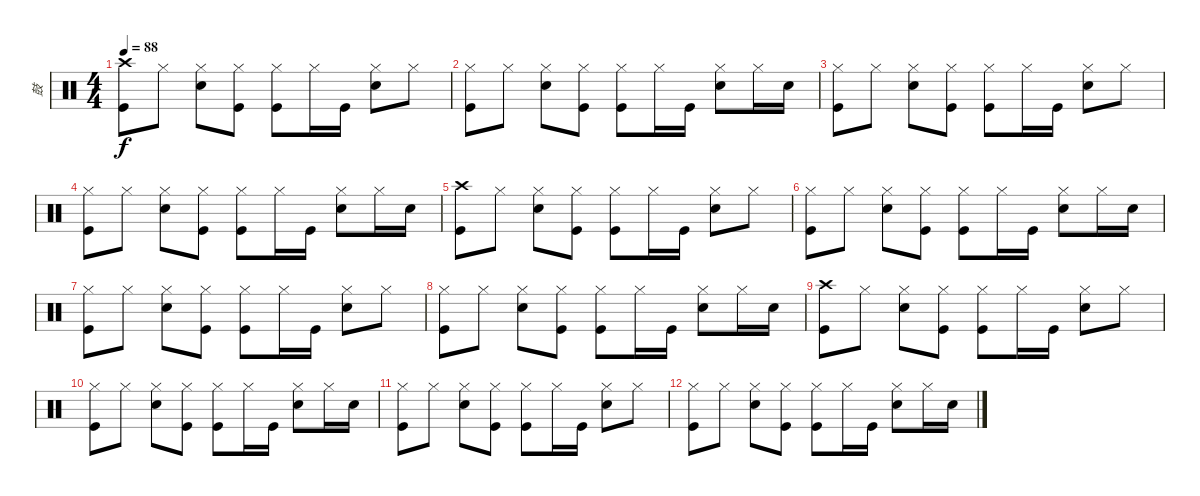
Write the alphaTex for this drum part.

\track ("鼓" "鼓") {instrument percussion}
\staff {score}
\articulation defaults
\ts (4 4)
\tempo 88
\clef neutral
\ks c
("Crash high (hit)" "Kick (hit)").8{dy f} "Hi-Hat (closed)".8 ("Hi-Hat (closed)" "Snare (hit) 2").8 ("Hi-Hat (closed)" "Kick (hit)").8 ("Hi-Hat (closed)" "Kick (hit)").8 "Hi-Hat (closed)".16 "Kick (hit)".16 ("Hi-Hat (closed)" "Snare (hit) 2").8 "Hi-Hat (closed)".8 |
("Hi-Hat (closed)" "Kick (hit)").8 "Hi-Hat (closed)".8 ("Hi-Hat (closed)" "Snare (hit) 2").8 ("Hi-Hat (closed)" "Kick (hit)").8 ("Hi-Hat (closed)" "Kick (hit)").8 "Hi-Hat (closed)".16 "Kick (hit)".16 ("Hi-Hat (closed)" "Snare (hit) 2").8 "Hi-Hat (closed)".16 "Snare (hit) 2".16 |
("Hi-Hat (closed)" "Kick (hit)").8 "Hi-Hat (closed)".8 ("Hi-Hat (closed)" "Snare (hit) 2").8 ("Hi-Hat (closed)" "Kick (hit)").8 ("Hi-Hat (closed)" "Kick (hit)").8 "Hi-Hat (closed)".16 "Kick (hit)".16 ("Hi-Hat (closed)" "Snare (hit) 2").8 "Hi-Hat (closed)".8 |
("Hi-Hat (closed)" "Kick (hit)").8 "Hi-Hat (closed)".8 ("Hi-Hat (closed)" "Snare (hit) 2").8 ("Hi-Hat (closed)" "Kick (hit)").8 ("Hi-Hat (closed)" "Kick (hit)").8 "Hi-Hat (closed)".16 "Kick (hit)".16 ("Hi-Hat (closed)" "Snare (hit) 2").8 "Hi-Hat (closed)".16 "Snare (hit) 2".16 |
("Crash high (hit)" "Kick (hit)").8 "Hi-Hat (closed)".8 ("Hi-Hat (closed)" "Snare (hit) 2").8 ("Hi-Hat (closed)" "Kick (hit)").8 ("Hi-Hat (closed)" "Kick (hit)").8 "Hi-Hat (closed)".16 "Kick (hit)".16 ("Hi-Hat (closed)" "Snare (hit) 2").8 "Hi-Hat (closed)".8 |
("Hi-Hat (closed)" "Kick (hit)").8 "Hi-Hat (closed)".8 ("Hi-Hat (closed)" "Snare (hit) 2").8 ("Hi-Hat (closed)" "Kick (hit)").8 ("Hi-Hat (closed)" "Kick (hit)").8 "Hi-Hat (closed)".16 "Kick (hit)".16 ("Hi-Hat (closed)" "Snare (hit) 2").8 "Hi-Hat (closed)".16 "Snare (hit) 2".16 |
("Hi-Hat (closed)" "Kick (hit)").8 "Hi-Hat (closed)".8 ("Hi-Hat (closed)" "Snare (hit) 2").8 ("Hi-Hat (closed)" "Kick (hit)").8 ("Hi-Hat (closed)" "Kick (hit)").8 "Hi-Hat (closed)".16 "Kick (hit)".16 ("Hi-Hat (closed)" "Snare (hit) 2").8 "Hi-Hat (closed)".8 |
("Hi-Hat (closed)" "Kick (hit)").8 "Hi-Hat (closed)".8 ("Hi-Hat (closed)" "Snare (hit) 2").8 ("Hi-Hat (closed)" "Kick (hit)").8 ("Hi-Hat (closed)" "Kick (hit)").8 "Hi-Hat (closed)".16 "Kick (hit)".16 ("Hi-Hat (closed)" "Snare (hit) 2").8 "Hi-Hat (closed)".16 "Snare (hit) 2".16 |
("Crash high (hit)" "Kick (hit)").8 "Hi-Hat (closed)".8 ("Hi-Hat (closed)" "Snare (hit) 2").8 ("Hi-Hat (closed)" "Kick (hit)").8 ("Hi-Hat (closed)" "Kick (hit)").8 "Hi-Hat (closed)".16 "Kick (hit)".16 ("Hi-Hat (closed)" "Snare (hit) 2").8 "Hi-Hat (closed)".8 |
("Hi-Hat (closed)" "Kick (hit)").8 "Hi-Hat (closed)".8 ("Hi-Hat (closed)" "Snare (hit) 2").8 ("Hi-Hat (closed)" "Kick (hit)").8 ("Hi-Hat (closed)" "Kick (hit)").8 "Hi-Hat (closed)".16 "Kick (hit)".16 ("Hi-Hat (closed)" "Snare (hit) 2").8 "Hi-Hat (closed)".16 "Snare (hit) 2".16 |
("Hi-Hat (closed)" "Kick (hit)").8 "Hi-Hat (closed)".8 ("Hi-Hat (closed)" "Snare (hit) 2").8 ("Hi-Hat (closed)" "Kick (hit)").8 ("Hi-Hat (closed)" "Kick (hit)").8 "Hi-Hat (closed)".16 "Kick (hit)".16 ("Hi-Hat (closed)" "Snare (hit) 2").8 "Hi-Hat (closed)".8 |
("Hi-Hat (closed)" "Kick (hit)").8 "Hi-Hat (closed)".8 ("Hi-Hat (closed)" "Snare (hit) 2").8 ("Hi-Hat (closed)" "Kick (hit)").8 ("Hi-Hat (closed)" "Kick (hit)").8 "Hi-Hat (closed)".16 "Kick (hit)".16 ("Hi-Hat (closed)" "Snare (hit) 2").8 "Hi-Hat (closed)".16 "Snare (hit) 2".16
